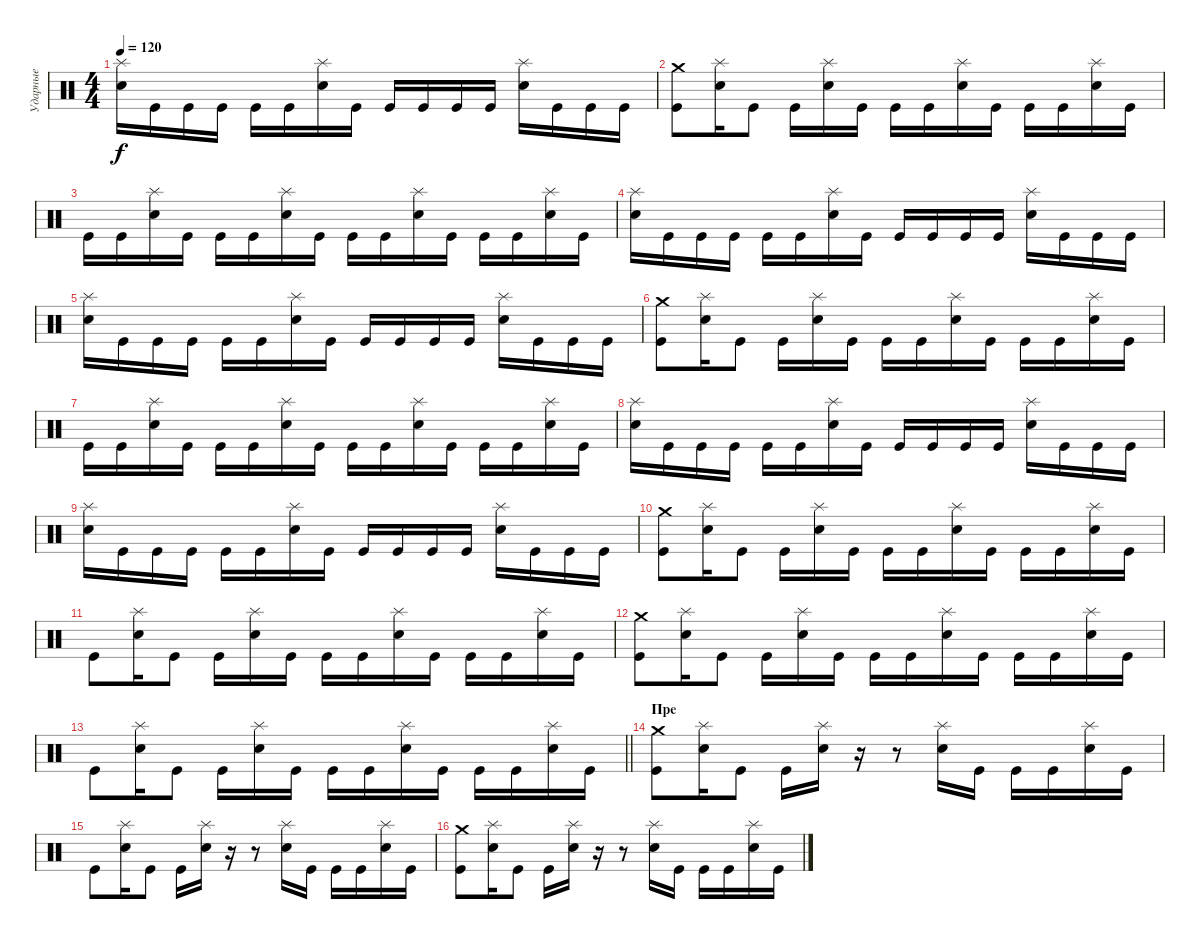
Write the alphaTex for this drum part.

\track ("Ударные" "Ударные") {instrument percussion}
\staff {score}
\articulation defaults
\ts (4 4)
\tempo 120
\clef neutral
\ks c
("Splash (hit)" "Electric Snare (hit)").16{dy f} "Kick (hit)".16 "Kick (hit)".16 "Kick (hit)".16 "Kick (hit)".16 "Kick (hit)".16 ("Splash (hit)" "Electric Snare (hit)").16 "Kick (hit)".16 "Kick (hit)".16 "Kick (hit)".16 "Kick (hit)".16 "Kick (hit)".16 ("Splash (hit)" "Electric Snare (hit)").16 "Kick (hit)".16 "Kick (hit)".16 "Kick (hit)".16 |
("Crash medium (hit)" "Kick (hit)").8 ("Splash (hit)" "Electric Snare (hit)").16 "Kick (hit)".8 "Kick (hit)".16 ("Splash (hit)" "Electric Snare (hit)").16 "Kick (hit)".16 "Kick (hit)".16 "Kick (hit)".16 ("Splash (hit)" "Electric Snare (hit)").16 "Kick (hit)".16 "Kick (hit)".16 "Kick (hit)".16 ("Splash (hit)" "Electric Snare (hit)").16 "Kick (hit)".16 |
"Kick (hit)".16 "Kick (hit)".16 ("Splash (hit)" "Electric Snare (hit)").16 "Kick (hit)".16 "Kick (hit)".16 "Kick (hit)".16 ("Splash (hit)" "Electric Snare (hit)").16 "Kick (hit)".16 "Kick (hit)".16 "Kick (hit)".16 ("Splash (hit)" "Electric Snare (hit)").16 "Kick (hit)".16 "Kick (hit)".16 "Kick (hit)".16 ("Splash (hit)" "Electric Snare (hit)").16 "Kick (hit)".16 |
("Splash (hit)" "Electric Snare (hit)").16 "Kick (hit)".16 "Kick (hit)".16 "Kick (hit)".16 "Kick (hit)".16 "Kick (hit)".16 ("Splash (hit)" "Electric Snare (hit)").16 "Kick (hit)".16 "Kick (hit)".16 "Kick (hit)".16 "Kick (hit)".16 "Kick (hit)".16 ("Splash (hit)" "Electric Snare (hit)").16 "Kick (hit)".16 "Kick (hit)".16 "Kick (hit)".16 |
("Splash (hit)" "Electric Snare (hit)").16 "Kick (hit)".16 "Kick (hit)".16 "Kick (hit)".16 "Kick (hit)".16 "Kick (hit)".16 ("Splash (hit)" "Electric Snare (hit)").16 "Kick (hit)".16 "Kick (hit)".16 "Kick (hit)".16 "Kick (hit)".16 "Kick (hit)".16 ("Splash (hit)" "Electric Snare (hit)").16 "Kick (hit)".16 "Kick (hit)".16 "Kick (hit)".16 |
("Crash medium (hit)" "Kick (hit)").8 ("Splash (hit)" "Electric Snare (hit)").16 "Kick (hit)".8 "Kick (hit)".16 ("Splash (hit)" "Electric Snare (hit)").16 "Kick (hit)".16 "Kick (hit)".16 "Kick (hit)".16 ("Splash (hit)" "Electric Snare (hit)").16 "Kick (hit)".16 "Kick (hit)".16 "Kick (hit)".16 ("Splash (hit)" "Electric Snare (hit)").16 "Kick (hit)".16 |
"Kick (hit)".16 "Kick (hit)".16 ("Splash (hit)" "Electric Snare (hit)").16 "Kick (hit)".16 "Kick (hit)".16 "Kick (hit)".16 ("Splash (hit)" "Electric Snare (hit)").16 "Kick (hit)".16 "Kick (hit)".16 "Kick (hit)".16 ("Splash (hit)" "Electric Snare (hit)").16 "Kick (hit)".16 "Kick (hit)".16 "Kick (hit)".16 ("Splash (hit)" "Electric Snare (hit)").16 "Kick (hit)".16 |
("Splash (hit)" "Electric Snare (hit)").16 "Kick (hit)".16 "Kick (hit)".16 "Kick (hit)".16 "Kick (hit)".16 "Kick (hit)".16 ("Splash (hit)" "Electric Snare (hit)").16 "Kick (hit)".16 "Kick (hit)".16 "Kick (hit)".16 "Kick (hit)".16 "Kick (hit)".16 ("Splash (hit)" "Electric Snare (hit)").16 "Kick (hit)".16 "Kick (hit)".16 "Kick (hit)".16 |
("Splash (hit)" "Electric Snare (hit)").16 "Kick (hit)".16 "Kick (hit)".16 "Kick (hit)".16 "Kick (hit)".16 "Kick (hit)".16 ("Splash (hit)" "Electric Snare (hit)").16 "Kick (hit)".16 "Kick (hit)".16 "Kick (hit)".16 "Kick (hit)".16 "Kick (hit)".16 ("Splash (hit)" "Electric Snare (hit)").16 "Kick (hit)".16 "Kick (hit)".16 "Kick (hit)".16 |
("Crash medium (hit)" "Kick (hit)").8 ("Splash (hit)" "Electric Snare (hit)").16 "Kick (hit)".8 "Kick (hit)".16 ("Splash (hit)" "Electric Snare (hit)").16 "Kick (hit)".16 "Kick (hit)".16 "Kick (hit)".16 ("Splash (hit)" "Electric Snare (hit)").16 "Kick (hit)".16 "Kick (hit)".16 "Kick (hit)".16 ("Splash (hit)" "Electric Snare (hit)").16 "Kick (hit)".16 |
"Kick (hit)".8 ("Splash (hit)" "Electric Snare (hit)").16 "Kick (hit)".8 "Kick (hit)".16 ("Splash (hit)" "Electric Snare (hit)").16 "Kick (hit)".16 "Kick (hit)".16 "Kick (hit)".16 ("Splash (hit)" "Electric Snare (hit)").16 "Kick (hit)".16 "Kick (hit)".16 "Kick (hit)".16 ("Splash (hit)" "Electric Snare (hit)").16 "Kick (hit)".16 |
("Crash medium (hit)" "Kick (hit)").8 ("Splash (hit)" "Electric Snare (hit)").16 "Kick (hit)".8 "Kick (hit)".16 ("Splash (hit)" "Electric Snare (hit)").16 "Kick (hit)".16 "Kick (hit)".16 "Kick (hit)".16 ("Splash (hit)" "Electric Snare (hit)").16 "Kick (hit)".16 "Kick (hit)".16 "Kick (hit)".16 ("Splash (hit)" "Electric Snare (hit)").16 "Kick (hit)".16 |
\barLineRight lightlight "Kick (hit)".8
("Splash (hit)" "Electric Snare (hit)").16 "Kick (hit)".8 "Kick (hit)".16 ("Splash (hit)" "Electric Snare (hit)").16 "Kick (hit)".16 "Kick (hit)".16 "Kick (hit)".16 ("Splash (hit)" "Electric Snare (hit)").16 "Kick (hit)".16 "Kick (hit)".16 "Kick (hit)".16 ("Splash (hit)" "Electric Snare (hit)").16 "Kick (hit)".16 |
\section ("" "Пре")
("Crash medium (hit)" "Kick (hit)").8 ("Splash (hit)" "Electric Snare (hit)").16 "Kick (hit)".8 "Kick (hit)".16 ("Splash (hit)" "Electric Snare (hit)").16 r.16 r.8 ("Splash (hit)" "Electric Snare (hit)").16 "Kick (hit)".16 "Kick (hit)".16 "Kick (hit)".16 ("Splash (hit)" "Electric Snare (hit)").16 "Kick (hit)".16 |
"Kick (hit)".8 ("Splash (hit)" "Electric Snare (hit)").16 "Kick (hit)".8 "Kick (hit)".16 ("Splash (hit)" "Electric Snare (hit)").16 r.16 r.8 ("Splash (hit)" "Electric Snare (hit)").16 "Kick (hit)".16 "Kick (hit)".16 "Kick (hit)".16 ("Splash (hit)" "Electric Snare (hit)").16 "Kick (hit)".16 |
("Crash medium (hit)" "Kick (hit)").8 ("Splash (hit)" "Electric Snare (hit)").16 "Kick (hit)".8 "Kick (hit)".16 ("Splash (hit)" "Electric Snare (hit)").16 r.16 r.8 ("Splash (hit)" "Electric Snare (hit)").16 "Kick (hit)".16 "Kick (hit)".16 "Kick (hit)".16 ("Splash (hit)" "Electric Snare (hit)").16 "Kick (hit)".16
